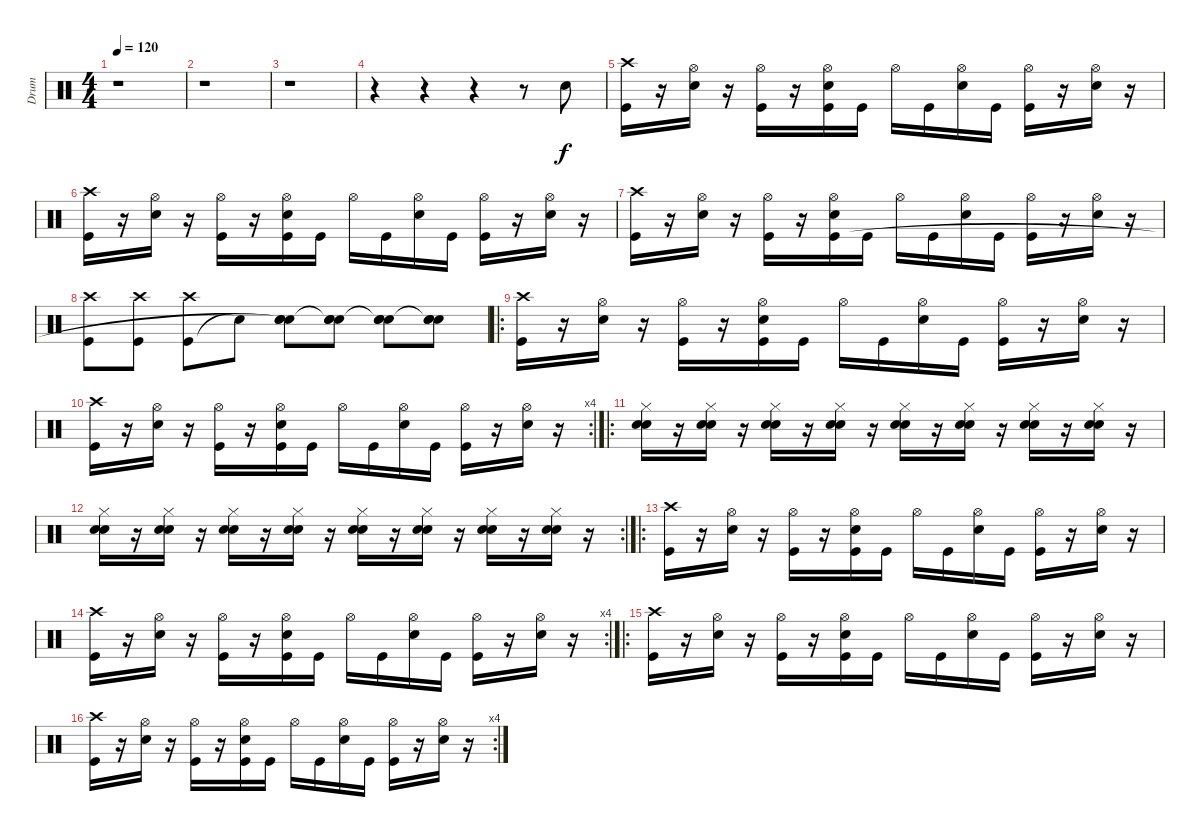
\track ("Drum" "Drum") {instrument percussion}
\staff {score}
\articulation defaults
\ts (4 4)
\tempo 120
\clef neutral
\ks c
r.1{dy f} |
r.1 |
r.1 |
r.4 r.4 r.4 r.8 "Snare (hit) 2".8 |
("Crash high (hit)" "Kick (hit)").16 r.16 ("Hi-Hat (open)" "Snare (hit) 2").16 r.16 ("Hi-Hat (open)" "Kick (hit)").16 r.16 ("Hi-Hat (open)" "Snare (hit) 2" "Kick (hit)").16 "Kick (hit)".16 "Hi-Hat (open)".16 "Kick (hit)".16 ("Hi-Hat (open)" "Snare (hit) 2").16 "Kick (hit)".16 ("Hi-Hat (open)" "Kick (hit)").16 r.16 ("Hi-Hat (open)" "Snare (hit) 2").16 r.16 |
("Crash high (hit)" "Kick (hit)").16 r.16 ("Hi-Hat (open)" "Snare (hit) 2").16 r.16 ("Hi-Hat (open)" "Kick (hit)").16 r.16 ("Hi-Hat (open)" "Snare (hit) 2" "Kick (hit)").16 "Kick (hit)".16 "Hi-Hat (open)".16 "Kick (hit)".16 ("Hi-Hat (open)" "Snare (hit) 2").16 "Kick (hit)".16 ("Hi-Hat (open)" "Kick (hit)").16 r.16 ("Hi-Hat (open)" "Snare (hit) 2").16 r.16 |
("Crash high (hit)" "Kick (hit)").16 r.16 ("Hi-Hat (open)" "Snare (hit) 2").16 r.16 ("Hi-Hat (open)" "Kick (hit)").16 r.16 ("Hi-Hat (open)" "Snare (hit) 2" "Kick (hit)").16 "Kick (hit)".16 "Hi-Hat (open)".16 "Kick (hit)".16 ("Hi-Hat (open)" "Snare (hit) 2").16 "Kick (hit)".16 ("Hi-Hat (open)" "Kick (hit)").16 r.16 ("Hi-Hat (open)" "Snare (hit) 2").16 r.16 |
("Kick (hit)" "Crash high (hit)").8 ("Kick (hit)" "Crash high (hit)").8 ("Kick (hit)" "Crash high (hit)").8 "Snare (hit)"{t}.8 ("Snare (hit) 2" "Snare (hit) 2" "Snare (hit)"{t}).8 ("Snare (hit) 2" "Snare (hit) 2" "Snare (hit)"{t}).8 ("Snare (hit) 2" "Snare (hit) 2" "Snare (hit)"{t}).8 ("Snare (hit) 2" "Snare (hit) 2" "Snare (hit)"{t}).8 |
\ro
("Crash high (hit)" "Kick (hit)").16 r.16 ("Hi-Hat (open)" "Snare (hit) 2").16 r.16 ("Hi-Hat (open)" "Kick (hit)").16 r.16 ("Hi-Hat (open)" "Snare (hit) 2" "Kick (hit)").16 "Kick (hit)".16 "Hi-Hat (open)".16 "Kick (hit)".16 ("Hi-Hat (open)" "Snare (hit) 2").16 "Kick (hit)".16 ("Hi-Hat (open)" "Kick (hit)").16 r.16 ("Hi-Hat (open)" "Snare (hit) 2").16 r.16 |
\rc 4
("Crash high (hit)" "Kick (hit)").16 r.16 ("Hi-Hat (open)" "Snare (hit) 2").16 r.16 ("Hi-Hat (open)" "Kick (hit)").16 r.16 ("Hi-Hat (open)" "Snare (hit) 2" "Kick (hit)").16 "Kick (hit)".16 "Hi-Hat (open)".16 "Kick (hit)".16 ("Hi-Hat (open)" "Snare (hit) 2").16 "Kick (hit)".16 ("Hi-Hat (open)" "Kick (hit)").16 r.16 ("Hi-Hat (open)" "Snare (hit) 2").16 r.16 |
\ro
("Hi-Hat (closed)" "Snare (hit) 2" "Snare (hit) 2").16 r.16 ("Hi-Hat (closed)" "Snare (hit) 2" "Snare (hit) 2").16 r.16 ("Hi-Hat (closed)" "Snare (hit) 2" "Snare (hit) 2").16 r.16 ("Hi-Hat (closed)" "Snare (hit) 2" "Snare (hit) 2").16 r.16 ("Hi-Hat (closed)" "Snare (hit) 2" "Snare (hit) 2").16 r.16 ("Hi-Hat (closed)" "Snare (hit) 2" "Snare (hit) 2").16 r.16 ("Hi-Hat (closed)" "Snare (hit) 2" "Snare (hit) 2").16 r.16 ("Hi-Hat (closed)" "Snare (hit) 2" "Snare (hit) 2").16 r.16 |
\rc 2
("Hi-Hat (closed)" "Snare (hit) 2" "Snare (hit) 2").16 r.16 ("Hi-Hat (closed)" "Snare (hit) 2" "Snare (hit) 2").16 r.16 ("Hi-Hat (closed)" "Snare (hit) 2" "Snare (hit) 2").16 r.16 ("Hi-Hat (closed)" "Snare (hit) 2" "Snare (hit) 2").16 r.16 ("Hi-Hat (closed)" "Snare (hit) 2" "Snare (hit) 2").16 r.16 ("Hi-Hat (closed)" "Snare (hit) 2" "Snare (hit) 2").16 r.16 ("Hi-Hat (closed)" "Snare (hit) 2" "Snare (hit) 2").16 r.16 ("Hi-Hat (closed)" "Snare (hit) 2" "Snare (hit) 2").16 r.16 |
\ro
("Crash high (hit)" "Kick (hit)").16 r.16 ("Hi-Hat (open)" "Snare (hit) 2").16 r.16 ("Hi-Hat (open)" "Kick (hit)").16 r.16 ("Hi-Hat (open)" "Snare (hit) 2" "Kick (hit)").16 "Kick (hit)".16 "Hi-Hat (open)".16 "Kick (hit)".16 ("Hi-Hat (open)" "Snare (hit) 2").16 "Kick (hit)".16 ("Hi-Hat (open)" "Kick (hit)").16 r.16 ("Hi-Hat (open)" "Snare (hit) 2").16 r.16 |
\rc 4
("Crash high (hit)" "Kick (hit)").16 r.16 ("Hi-Hat (open)" "Snare (hit) 2").16 r.16 ("Hi-Hat (open)" "Kick (hit)").16 r.16 ("Hi-Hat (open)" "Snare (hit) 2" "Kick (hit)").16 "Kick (hit)".16 "Hi-Hat (open)".16 "Kick (hit)".16 ("Hi-Hat (open)" "Snare (hit) 2").16 "Kick (hit)".16 ("Hi-Hat (open)" "Kick (hit)").16 r.16 ("Hi-Hat (open)" "Snare (hit) 2").16 r.16 |
\ro
("Crash high (hit)" "Kick (hit)").16 r.16 ("Hi-Hat (open)" "Snare (hit) 2").16 r.16 ("Hi-Hat (open)" "Kick (hit)").16 r.16 ("Hi-Hat (open)" "Snare (hit) 2" "Kick (hit)").16 "Kick (hit)".16 "Hi-Hat (open)".16 "Kick (hit)".16 ("Hi-Hat (open)" "Snare (hit) 2").16 "Kick (hit)".16 ("Hi-Hat (open)" "Kick (hit)").16 r.16 ("Hi-Hat (open)" "Snare (hit) 2").16 r.16 |
\rc 4
("Crash high (hit)" "Kick (hit)").16 r.16 ("Hi-Hat (open)" "Snare (hit) 2").16 r.16 ("Hi-Hat (open)" "Kick (hit)").16 r.16 ("Hi-Hat (open)" "Snare (hit) 2" "Kick (hit)").16 "Kick (hit)".16 "Hi-Hat (open)".16 "Kick (hit)".16 ("Hi-Hat (open)" "Snare (hit) 2").16 "Kick (hit)".16 ("Hi-Hat (open)" "Kick (hit)").16 r.16 ("Hi-Hat (open)" "Snare (hit) 2").16 r.16
